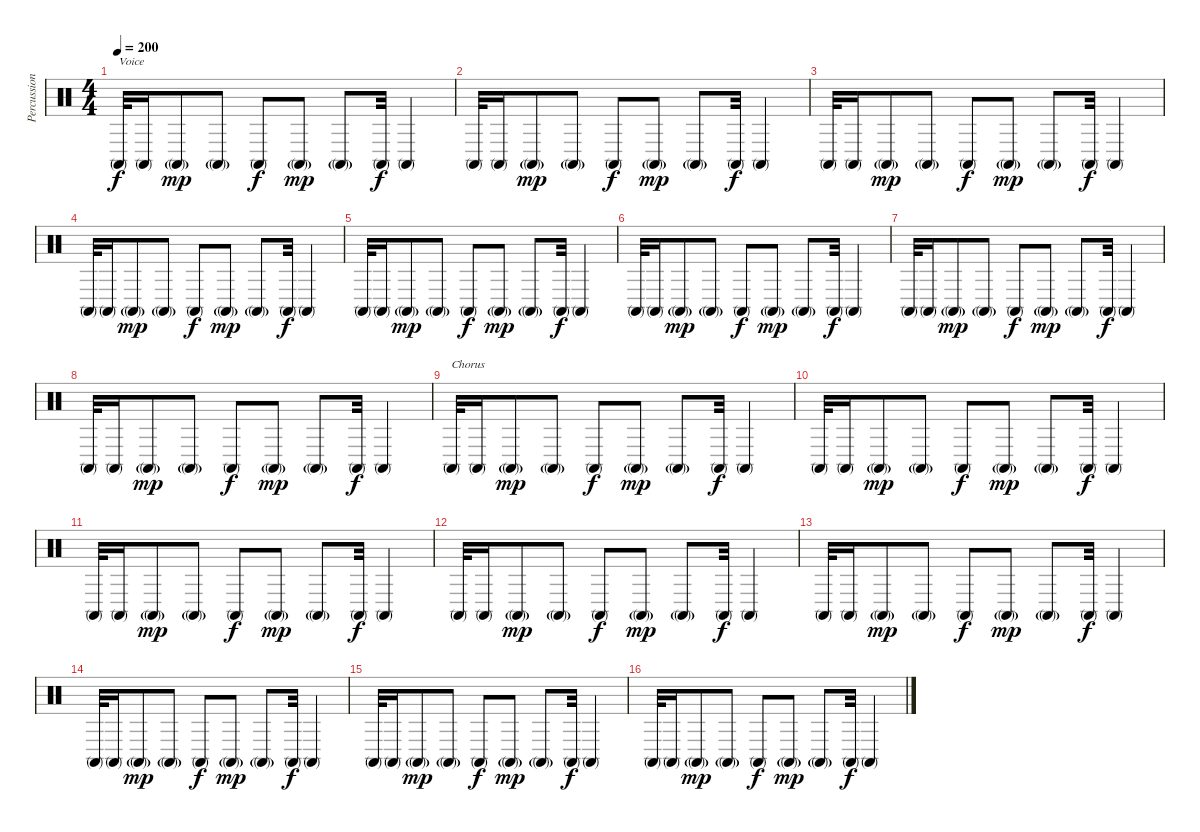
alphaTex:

\track ("Percussion 2" "Percussion") {instrument percussion}
\staff {score}
\articulation defaults
\ts (4 4)
\tempo 200
\clef neutral
\ks c "Conga high (mute)".32{txt "Voice" dy f} "Conga high (mute)".16 "Conga high (mute)"{g}.8{dy mp} "Conga high (mute)"{g}.8 "Conga high (mute)".8{dy f} "Conga high (mute)"{g}.8{dy mp} "Conga high (mute)"{g}.8 "Conga high (mute)".32{dy f} "Conga high (mute)".4
|
"Conga high (mute)".32 "Conga high (mute)".16 "Conga high (mute)"{g}.8{dy mp} "Conga high (mute)"{g}.8 "Conga high (mute)".8{dy f} "Conga high (mute)"{g}.8{dy mp} "Conga high (mute)"{g}.8 "Conga high (mute)".32{dy f} "Conga high (mute)".4 |
"Conga high (mute)".32 "Conga high (mute)".16 "Conga high (mute)"{g}.8{dy mp} "Conga high (mute)"{g}.8 "Conga high (mute)".8{dy f} "Conga high (mute)"{g}.8{dy mp} "Conga high (mute)"{g}.8 "Conga high (mute)".32{dy f} "Conga high (mute)".4 |
"Conga high (mute)".32 "Conga high (mute)".16 "Conga high (mute)"{g}.8{dy mp} "Conga high (mute)"{g}.8 "Conga high (mute)".8{dy f} "Conga high (mute)"{g}.8{dy mp} "Conga high (mute)"{g}.8 "Conga high (mute)".32{dy f} "Conga high (mute)".4 |
"Conga high (mute)".32 "Conga high (mute)".16 "Conga high (mute)"{g}.8{dy mp} "Conga high (mute)"{g}.8 "Conga high (mute)".8{dy f} "Conga high (mute)"{g}.8{dy mp} "Conga high (mute)"{g}.8 "Conga high (mute)".32{dy f} "Conga high (mute)".4 |
"Conga high (mute)".32 "Conga high (mute)".16 "Conga high (mute)"{g}.8{dy mp} "Conga high (mute)"{g}.8 "Conga high (mute)".8{dy f} "Conga high (mute)"{g}.8{dy mp} "Conga high (mute)"{g}.8 "Conga high (mute)".32{dy f} "Conga high (mute)".4 |
"Conga high (mute)".32 "Conga high (mute)".16 "Conga high (mute)"{g}.8{dy mp} "Conga high (mute)"{g}.8 "Conga high (mute)".8{dy f} "Conga high (mute)"{g}.8{dy mp} "Conga high (mute)"{g}.8 "Conga high (mute)".32{dy f} "Conga high (mute)".4 |
"Conga high (mute)".32 "Conga high (mute)".16 "Conga high (mute)"{g}.8{dy mp} "Conga high (mute)"{g}.8 "Conga high (mute)".8{dy f} "Conga high (mute)"{g}.8{dy mp} "Conga high (mute)"{g}.8 "Conga high (mute)".32{dy f} "Conga high (mute)".4 |
"Conga high (mute)".32{txt "Chorus"} "Conga high (mute)".16 "Conga high (mute)"{g}.8{dy mp} "Conga high (mute)"{g}.8 "Conga high (mute)".8{dy f} "Conga high (mute)"{g}.8{dy mp} "Conga high (mute)"{g}.8 "Conga high (mute)".32{dy f} "Conga high (mute)".4 |
"Conga high (mute)".32 "Conga high (mute)".16 "Conga high (mute)"{g}.8{dy mp} "Conga high (mute)"{g}.8 "Conga high (mute)".8{dy f} "Conga high (mute)"{g}.8{dy mp} "Conga high (mute)"{g}.8 "Conga high (mute)".32{dy f} "Conga high (mute)".4 |
"Conga high (mute)".32 "Conga high (mute)".16 "Conga high (mute)"{g}.8{dy mp} "Conga high (mute)"{g}.8 "Conga high (mute)".8{dy f} "Conga high (mute)"{g}.8{dy mp} "Conga high (mute)"{g}.8 "Conga high (mute)".32{dy f} "Conga high (mute)".4 |
"Conga high (mute)".32 "Conga high (mute)".16 "Conga high (mute)"{g}.8{dy mp} "Conga high (mute)"{g}.8 "Conga high (mute)".8{dy f} "Conga high (mute)"{g}.8{dy mp} "Conga high (mute)"{g}.8 "Conga high (mute)".32{dy f} "Conga high (mute)".4 |
"Conga high (mute)".32 "Conga high (mute)".16 "Conga high (mute)"{g}.8{dy mp} "Conga high (mute)"{g}.8 "Conga high (mute)".8{dy f} "Conga high (mute)"{g}.8{dy mp} "Conga high (mute)"{g}.8 "Conga high (mute)".32{dy f} "Conga high (mute)".4 |
"Conga high (mute)".32 "Conga high (mute)".16 "Conga high (mute)"{g}.8{dy mp} "Conga high (mute)"{g}.8 "Conga high (mute)".8{dy f} "Conga high (mute)"{g}.8{dy mp} "Conga high (mute)"{g}.8 "Conga high (mute)".32{dy f} "Conga high (mute)".4 |
"Conga high (mute)".32 "Conga high (mute)".16 "Conga high (mute)"{g}.8{dy mp} "Conga high (mute)"{g}.8 "Conga high (mute)".8{dy f} "Conga high (mute)"{g}.8{dy mp} "Conga high (mute)"{g}.8 "Conga high (mute)".32{dy f} "Conga high (mute)".4 |
"Conga high (mute)".32 "Conga high (mute)".16 "Conga high (mute)"{g}.8{dy mp} "Conga high (mute)"{g}.8 "Conga high (mute)".8{dy f} "Conga high (mute)"{g}.8{dy mp} "Conga high (mute)"{g}.8 "Conga high (mute)".32{dy f} "Conga high (mute)".4
